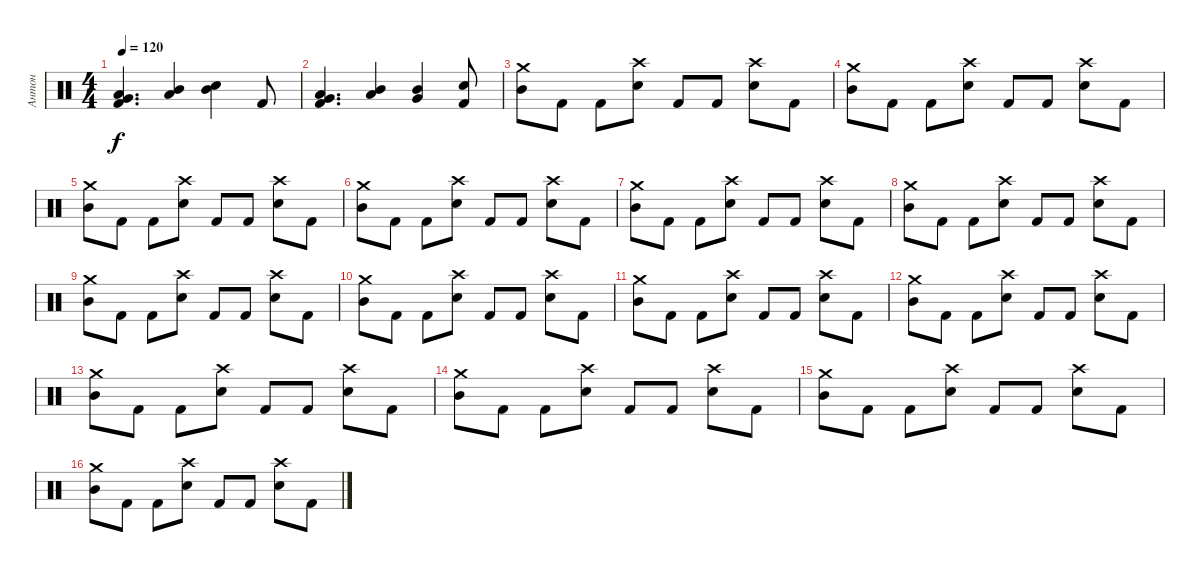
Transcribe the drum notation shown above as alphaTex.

\track ("Антон" "Антон") {instrument percussion}
\staff {score}
\articulation defaults
\ts (4 4)
\tempo 120
\clef neutral
\ks c
("Very Low Tom (hit)" "Low Tom (hit)" "Kick (hit) 2").4{d dy f} ("Low Tom (hit)" "Mid Tom (hit)").4 ("Mid Tom (hit)" "Electric Snare (hit)").4 "Kick (hit) 2".8 |
("Very Low Tom (hit)" "Low Tom (hit)" "Kick (hit) 2").4{d} ("Low Tom (hit)" "Mid Tom (hit)").4 ("Mid Tom (hit)" "Very Low Tom (hit)").4 ("Electric Snare (hit)" "Kick (hit) 2").8 |
("Crash medium (hit)" "Mid Tom (hit)").8 "Kick (hit) 2".8 "Kick (hit) 2".8 ("Crash high (hit)" "Electric Snare (hit)").8 "Kick (hit) 2".8 "Kick (hit) 2".8 ("Crash high (hit)" "Electric Snare (hit)").8 "Kick (hit) 2".8 |
("Crash medium (hit)" "Mid Tom (hit)").8 "Kick (hit) 2".8 "Kick (hit) 2".8 ("Crash high (hit)" "Electric Snare (hit)").8 "Kick (hit) 2".8 "Kick (hit) 2".8 ("Crash high (hit)" "Electric Snare (hit)").8 "Kick (hit) 2".8 |
("Crash medium (hit)" "Mid Tom (hit)").8 "Kick (hit) 2".8 "Kick (hit) 2".8 ("Crash high (hit)" "Electric Snare (hit)").8 "Kick (hit) 2".8 "Kick (hit) 2".8 ("Crash high (hit)" "Electric Snare (hit)").8 "Kick (hit) 2".8 |
("Crash medium (hit)" "Mid Tom (hit)").8 "Kick (hit) 2".8 "Kick (hit) 2".8 ("Crash high (hit)" "Electric Snare (hit)").8 "Kick (hit) 2".8 "Kick (hit) 2".8 ("Crash high (hit)" "Electric Snare (hit)").8 "Kick (hit) 2".8 |
("Crash medium (hit)" "Mid Tom (hit)").8 "Kick (hit) 2".8 "Kick (hit) 2".8 ("Crash high (hit)" "Electric Snare (hit)").8 "Kick (hit) 2".8 "Kick (hit) 2".8 ("Crash high (hit)" "Electric Snare (hit)").8 "Kick (hit) 2".8 |
("Crash medium (hit)" "Mid Tom (hit)").8 "Kick (hit) 2".8 "Kick (hit) 2".8 ("Crash high (hit)" "Electric Snare (hit)").8 "Kick (hit) 2".8 "Kick (hit) 2".8 ("Crash high (hit)" "Electric Snare (hit)").8 "Kick (hit) 2".8 |
("Crash medium (hit)" "Mid Tom (hit)").8 "Kick (hit) 2".8 "Kick (hit) 2".8 ("Crash high (hit)" "Electric Snare (hit)").8 "Kick (hit) 2".8 "Kick (hit) 2".8 ("Crash high (hit)" "Electric Snare (hit)").8 "Kick (hit) 2".8 |
("Crash medium (hit)" "Mid Tom (hit)").8 "Kick (hit) 2".8 "Kick (hit) 2".8 ("Crash high (hit)" "Electric Snare (hit)").8 "Kick (hit) 2".8 "Kick (hit) 2".8 ("Crash high (hit)" "Electric Snare (hit)").8 "Kick (hit) 2".8 |
("Crash medium (hit)" "Mid Tom (hit)").8 "Kick (hit) 2".8 "Kick (hit) 2".8 ("Crash high (hit)" "Electric Snare (hit)").8 "Kick (hit) 2".8 "Kick (hit) 2".8 ("Crash high (hit)" "Electric Snare (hit)").8 "Kick (hit) 2".8 |
("Crash medium (hit)" "Mid Tom (hit)").8 "Kick (hit) 2".8 "Kick (hit) 2".8 ("Crash high (hit)" "Electric Snare (hit)").8 "Kick (hit) 2".8 "Kick (hit) 2".8 ("Crash high (hit)" "Electric Snare (hit)").8 "Kick (hit) 2".8 |
("Crash medium (hit)" "Mid Tom (hit)").8 "Kick (hit) 2".8 "Kick (hit) 2".8 ("Crash high (hit)" "Electric Snare (hit)").8 "Kick (hit) 2".8 "Kick (hit) 2".8 ("Crash high (hit)" "Electric Snare (hit)").8 "Kick (hit) 2".8 |
("Crash medium (hit)" "Mid Tom (hit)").8 "Kick (hit) 2".8 "Kick (hit) 2".8 ("Crash high (hit)" "Electric Snare (hit)").8 "Kick (hit) 2".8 "Kick (hit) 2".8 ("Crash high (hit)" "Electric Snare (hit)").8 "Kick (hit) 2".8 |
("Crash medium (hit)" "Mid Tom (hit)").8 "Kick (hit) 2".8 "Kick (hit) 2".8 ("Crash high (hit)" "Electric Snare (hit)").8 "Kick (hit) 2".8 "Kick (hit) 2".8 ("Crash high (hit)" "Electric Snare (hit)").8 "Kick (hit) 2".8 |
("Crash medium (hit)" "Mid Tom (hit)").8 "Kick (hit) 2".8 "Kick (hit) 2".8 ("Crash high (hit)" "Electric Snare (hit)").8 "Kick (hit) 2".8 "Kick (hit) 2".8 ("Crash high (hit)" "Electric Snare (hit)").8 "Kick (hit) 2".8
